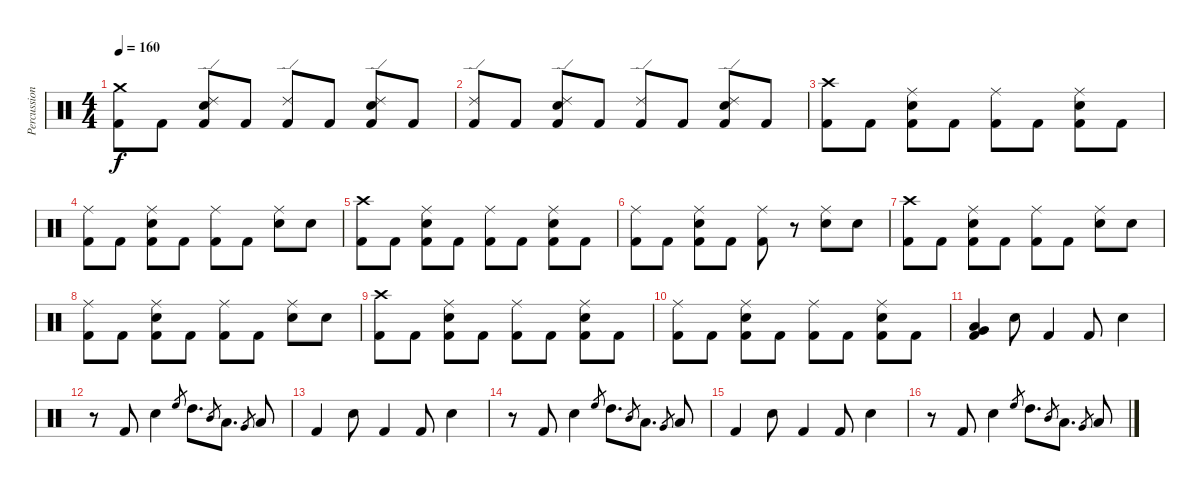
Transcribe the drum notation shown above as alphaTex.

\track ("Percussion" "Percussion") {instrument percussion}
\staff {score}
\articulation defaults
\ts (4 4)
\tempo 160
\clef neutral
\ks c
("Crash medium (hit)" "Kick (hit) 2").8{dy f} "Kick (hit) 2".8 ("Ride (edge) 2" "Electric Snare (hit)" "Kick (hit) 2").8 "Kick (hit) 2".8 ("Ride (edge) 2" "Kick (hit) 2").8 "Kick (hit) 2".8 ("Ride (edge) 2" "Electric Snare (hit)" "Kick (hit) 2").8 "Kick (hit) 2".8 |
("Ride (edge) 2" "Kick (hit) 2").8 "Kick (hit) 2".8 ("Ride (edge) 2" "Electric Snare (hit)" "Kick (hit) 2").8 "Kick (hit) 2".8 ("Ride (edge) 2" "Kick (hit) 2").8 "Kick (hit) 2".8 ("Ride (edge) 2" "Electric Snare (hit)" "Kick (hit) 2").8 "Kick (hit) 2".8 |
("Crash high (hit)" "Kick (hit) 2").8 "Kick (hit) 2".8 ("Ride (middle)" "Electric Snare (hit)" "Kick (hit) 2").8 "Kick (hit) 2".8 ("Ride (middle)" "Kick (hit) 2").8 "Kick (hit) 2".8 ("Ride (middle)" "Electric Snare (hit)" "Kick (hit) 2").8 "Kick (hit) 2".8 |
("Ride (middle)" "Kick (hit) 2").8 "Kick (hit) 2".8 ("Ride (middle)" "Electric Snare (hit)" "Kick (hit) 2").8 "Kick (hit) 2".8 ("Ride (middle)" "Kick (hit) 2").8 "Kick (hit) 2".8 ("Ride (middle)" "Electric Snare (hit)").8 "Electric Snare (hit)".8 |
("Crash high (hit)" "Kick (hit) 2").8 "Kick (hit) 2".8 ("Ride (middle)" "Electric Snare (hit)" "Kick (hit) 2").8 "Kick (hit) 2".8 ("Ride (middle)" "Kick (hit) 2").8 "Kick (hit) 2".8 ("Ride (middle)" "Electric Snare (hit)" "Kick (hit) 2").8 "Kick (hit) 2".8 |
("Ride (middle)" "Kick (hit) 2").8 "Kick (hit) 2".8 ("Ride (middle)" "Electric Snare (hit)" "Kick (hit) 2").8 "Kick (hit) 2".8 ("Ride (middle)" "Kick (hit) 2").8 r.8 ("Ride (middle)" "Electric Snare (hit)").8 "Electric Snare (hit)".8 |
("Crash high (hit)" "Kick (hit) 2").8 "Kick (hit) 2".8 ("Ride (middle)" "Electric Snare (hit)" "Kick (hit) 2").8 "Kick (hit) 2".8 ("Ride (middle)" "Kick (hit) 2").8 "Kick (hit) 2".8 ("Ride (middle)" "Electric Snare (hit)").8 "Electric Snare (hit)".8 |
("Ride (middle)" "Kick (hit) 2").8 "Kick (hit) 2".8 ("Ride (middle)" "Electric Snare (hit)" "Kick (hit) 2").8 "Kick (hit) 2".8 ("Ride (middle)" "Kick (hit) 2").8 "Kick (hit) 2".8 ("Ride (middle)" "Electric Snare (hit)").8 "Electric Snare (hit)".8 |
("Crash high (hit)" "Kick (hit) 2").8 "Kick (hit) 2".8 ("Ride (middle)" "Electric Snare (hit)" "Kick (hit) 2").8 "Kick (hit) 2".8 ("Ride (middle)" "Kick (hit) 2").8 "Kick (hit) 2".8 ("Ride (middle)" "Electric Snare (hit)" "Kick (hit) 2").8 "Kick (hit) 2".8 |
("Ride (middle)" "Kick (hit) 2").8 "Kick (hit) 2".8 ("Ride (middle)" "Electric Snare (hit)" "Kick (hit) 2").8 "Kick (hit) 2".8 ("Ride (middle)" "Kick (hit) 2").8 "Kick (hit) 2".8 ("Ride (middle)" "Electric Snare (hit)" "Kick (hit) 2").8 "Kick (hit) 2".8 |
("Low Tom (hit)" "Very Low Tom (hit)" "Kick (hit) 2").4 "Electric Snare (hit)".8 "Kick (hit) 2".4 "Kick (hit) 2".8 "Electric Snare (hit)".4 |
r.8 "Kick (hit) 2".8 "Electric Snare (hit)".4 "High Floor Tom (hit)".8{gr} "High Tom (hit)".8{d} "Mid Tom (hit)".8{gr} "Low Tom (hit)".8{d} "Very Low Tom (hit)".8{gr} "Low Floor Tom (hit)".8 |
"Kick (hit) 2".4 "Electric Snare (hit)".8 "Kick (hit) 2".4 "Kick (hit) 2".8 "Electric Snare (hit)".4 |
r.8 "Kick (hit) 2".8 "Electric Snare (hit)".4 "High Floor Tom (hit)".8{gr} "High Tom (hit)".8{d} "Mid Tom (hit)".8{gr} "Low Tom (hit)".8{d} "Very Low Tom (hit)".8{gr} "Low Floor Tom (hit)".8 |
"Kick (hit) 2".4 "Electric Snare (hit)".8 "Kick (hit) 2".4 "Kick (hit) 2".8 "Electric Snare (hit)".4 |
r.8 "Kick (hit) 2".8 "Electric Snare (hit)".4 "High Floor Tom (hit)".8{gr} "High Tom (hit)".8{d} "Mid Tom (hit)".8{gr} "Low Tom (hit)".8{d} "Very Low Tom (hit)".8{gr} "Low Floor Tom (hit)".8
